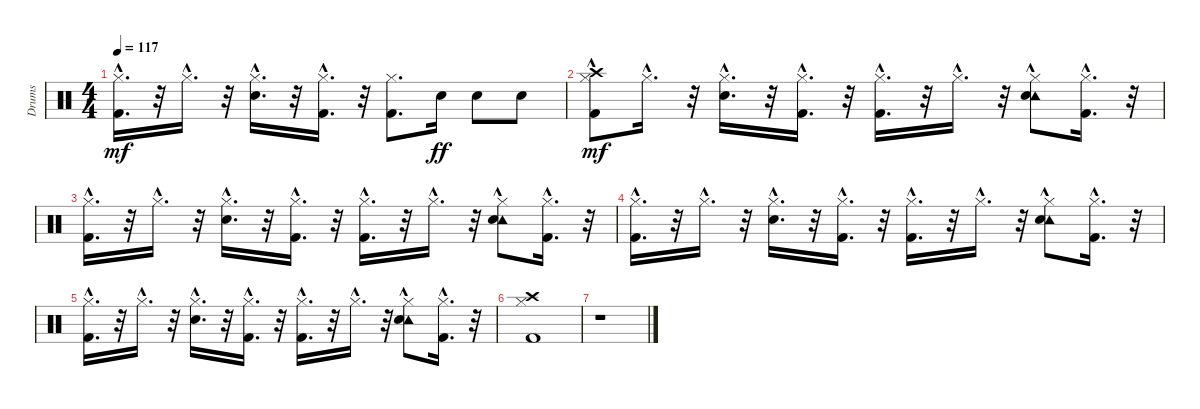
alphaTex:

\track ("Drums" "Drums") {instrument percussion}
\staff {score}
\articulation defaults
\ts (4 4)
\tempo 117
\clef neutral
\ks c
("Kick (hit) 2"{hac} "Hi-Hat (closed)"{hac}).16{d dy mf} r.32 "Hi-Hat (closed)"{hac}.16{d} r.32 ("Snare (hit) 2"{hac} "Hi-Hat (closed)"{hac}).16{d} r.32 ("Kick (hit) 2"{hac} "Hi-Hat (closed)"{hac}).16{d} r.32 ("Kick (hit) 2" "Hi-Hat (closed)").8{d} "Snare (hit) 2".16{dy ff} "Snare (hit) 2".8 "Snare (hit) 2".8 |
("Crash high (hit)" "Kick (hit) 2"{hac} "Hi-Hat (closed)"{hac}).8{dy mf} "Hi-Hat (closed)"{hac}.16{d} r.32 ("Snare (hit) 2"{hac} "Hi-Hat (closed)"{hac}).16{d} r.32 ("Kick (hit) 2"{hac} "Hi-Hat (closed)"{hac}).16{d} r.32 ("Kick (hit) 2"{hac} "Hi-Hat (closed)"{hac}).16{d} r.32 "Hi-Hat (closed)"{hac}.16{d} r.32 ("Tambourine (hit)" "Snare (hit) 2"{hac} "Hi-Hat (closed)"{hac}).8 ("Kick (hit) 2"{hac} "Hi-Hat (closed)"{hac}).16{d} r.32 |
("Kick (hit) 2"{hac} "Hi-Hat (closed)"{hac}).16{d} r.32 "Hi-Hat (closed)"{hac}.16{d} r.32 ("Snare (hit) 2"{hac} "Hi-Hat (closed)"{hac}).16{d} r.32 ("Kick (hit) 2"{hac} "Hi-Hat (closed)"{hac}).16{d} r.32 ("Kick (hit) 2"{hac} "Hi-Hat (closed)"{hac}).16{d} r.32 "Hi-Hat (closed)"{hac}.16{d} r.32 ("Tambourine (hit)" "Snare (hit) 2"{hac} "Hi-Hat (closed)"{hac}).8 ("Kick (hit) 2"{hac} "Hi-Hat (closed)"{hac}).16{d} r.32 |
("Kick (hit) 2"{hac} "Hi-Hat (closed)"{hac}).16{d} r.32 "Hi-Hat (closed)"{hac}.16{d} r.32 ("Snare (hit) 2"{hac} "Hi-Hat (closed)"{hac}).16{d} r.32 ("Kick (hit) 2"{hac} "Hi-Hat (closed)"{hac}).16{d} r.32 ("Kick (hit) 2"{hac} "Hi-Hat (closed)"{hac}).16{d} r.32 "Hi-Hat (closed)"{hac}.16{d} r.32 ("Tambourine (hit)" "Snare (hit) 2"{hac} "Hi-Hat (closed)"{hac}).8 ("Kick (hit) 2"{hac} "Hi-Hat (closed)"{hac}).16{d} r.32 |
("Kick (hit) 2"{hac} "Hi-Hat (closed)"{hac}).16{d} r.32 "Hi-Hat (closed)"{hac}.16{d} r.32 ("Snare (hit) 2"{hac} "Hi-Hat (closed)"{hac}).16{d} r.32 ("Kick (hit) 2"{hac} "Hi-Hat (closed)"{hac}).16{d} r.32 ("Kick (hit) 2"{hac} "Hi-Hat (closed)"{hac}).16{d} r.32 "Hi-Hat (closed)"{hac}.16{d} r.32 ("Tambourine (hit)" "Snare (hit) 2"{hac} "Hi-Hat (closed)"{hac}).8 ("Kick (hit) 2"{hac} "Hi-Hat (closed)"{hac}).16{d} r.32 |
("Crash high (hit)" "Kick (hit) 2" "Hi-Hat (closed)").1 |
r.1
